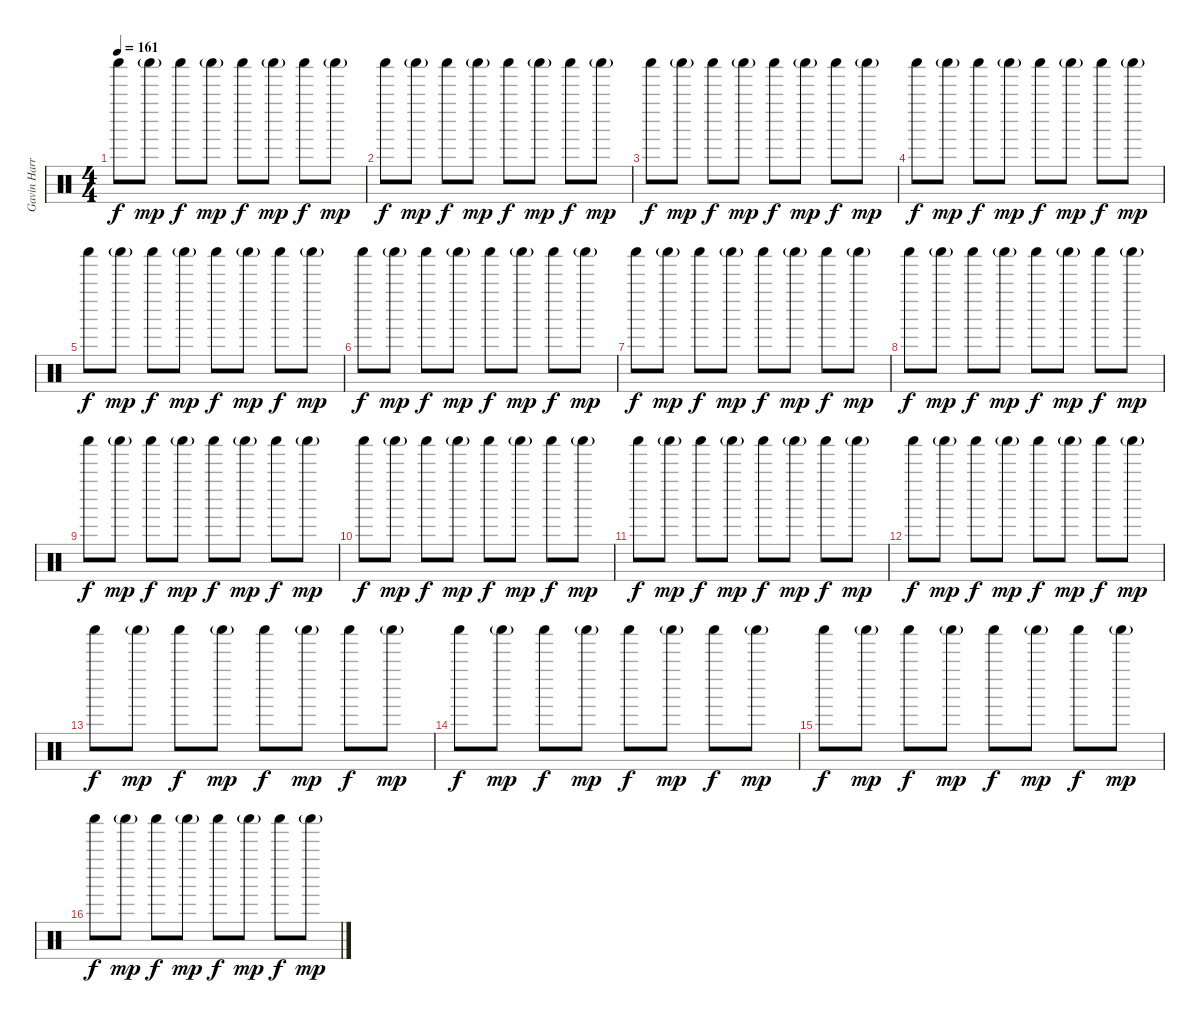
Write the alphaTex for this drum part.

\track ("Gavin Harrison (Drums)" "Gavin Harr") {instrument percussion}
\staff {score}
\articulation defaults
\ts (4 4)
\tempo 161
\clef neutral
\ks c "Shaker (hit)".8{dy f} "Shaker (hit)"{g}.8{dy mp} "Shaker (hit)".8{dy f} "Shaker (hit)"{g}.8{dy mp} "Shaker (hit)".8{dy f} "Shaker (hit)"{g}.8{dy mp} "Shaker (hit)".8{dy f} "Shaker (hit)"{g}.8{dy mp}
|
"Shaker (hit)".8{dy f} "Shaker (hit)"{g}.8{dy mp} "Shaker (hit)".8{dy f} "Shaker (hit)"{g}.8{dy mp} "Shaker (hit)".8{dy f} "Shaker (hit)"{g}.8{dy mp} "Shaker (hit)".8{dy f} "Shaker (hit)"{g}.8{dy mp} |
"Shaker (hit)".8{dy f} "Shaker (hit)"{g}.8{dy mp} "Shaker (hit)".8{dy f} "Shaker (hit)"{g}.8{dy mp} "Shaker (hit)".8{dy f} "Shaker (hit)"{g}.8{dy mp} "Shaker (hit)".8{dy f} "Shaker (hit)"{g}.8{dy mp} |
"Shaker (hit)".8{dy f} "Shaker (hit)"{g}.8{dy mp} "Shaker (hit)".8{dy f} "Shaker (hit)"{g}.8{dy mp} "Shaker (hit)".8{dy f} "Shaker (hit)"{g}.8{dy mp} "Shaker (hit)".8{dy f} "Shaker (hit)"{g}.8{dy mp} |
"Shaker (hit)".8{dy f} "Shaker (hit)"{g}.8{dy mp} "Shaker (hit)".8{dy f} "Shaker (hit)"{g}.8{dy mp} "Shaker (hit)".8{dy f} "Shaker (hit)"{g}.8{dy mp} "Shaker (hit)".8{dy f} "Shaker (hit)"{g}.8{dy mp} |
"Shaker (hit)".8{dy f} "Shaker (hit)"{g}.8{dy mp} "Shaker (hit)".8{dy f} "Shaker (hit)"{g}.8{dy mp} "Shaker (hit)".8{dy f} "Shaker (hit)"{g}.8{dy mp} "Shaker (hit)".8{dy f} "Shaker (hit)"{g}.8{dy mp} |
"Shaker (hit)".8{dy f} "Shaker (hit)"{g}.8{dy mp} "Shaker (hit)".8{dy f} "Shaker (hit)"{g}.8{dy mp} "Shaker (hit)".8{dy f} "Shaker (hit)"{g}.8{dy mp} "Shaker (hit)".8{dy f} "Shaker (hit)"{g}.8{dy mp} |
"Shaker (hit)".8{dy f} "Shaker (hit)"{g}.8{dy mp} "Shaker (hit)".8{dy f} "Shaker (hit)"{g}.8{dy mp} "Shaker (hit)".8{dy f} "Shaker (hit)"{g}.8{dy mp} "Shaker (hit)".8{dy f} "Shaker (hit)"{g}.8{dy mp} |
"Shaker (hit)".8{dy f} "Shaker (hit)"{g}.8{dy mp} "Shaker (hit)".8{dy f} "Shaker (hit)"{g}.8{dy mp} "Shaker (hit)".8{dy f} "Shaker (hit)"{g}.8{dy mp} "Shaker (hit)".8{dy f} "Shaker (hit)"{g}.8{dy mp} |
"Shaker (hit)".8{dy f} "Shaker (hit)"{g}.8{dy mp} "Shaker (hit)".8{dy f} "Shaker (hit)"{g}.8{dy mp} "Shaker (hit)".8{dy f} "Shaker (hit)"{g}.8{dy mp} "Shaker (hit)".8{dy f} "Shaker (hit)"{g}.8{dy mp} |
"Shaker (hit)".8{dy f} "Shaker (hit)"{g}.8{dy mp} "Shaker (hit)".8{dy f} "Shaker (hit)"{g}.8{dy mp} "Shaker (hit)".8{dy f} "Shaker (hit)"{g}.8{dy mp} "Shaker (hit)".8{dy f} "Shaker (hit)"{g}.8{dy mp} |
"Shaker (hit)".8{dy f} "Shaker (hit)"{g}.8{dy mp} "Shaker (hit)".8{dy f} "Shaker (hit)"{g}.8{dy mp} "Shaker (hit)".8{dy f} "Shaker (hit)"{g}.8{dy mp} "Shaker (hit)".8{dy f} "Shaker (hit)"{g}.8{dy mp} |
"Shaker (hit)".8{dy f} "Shaker (hit)"{g}.8{dy mp} "Shaker (hit)".8{dy f} "Shaker (hit)"{g}.8{dy mp} "Shaker (hit)".8{dy f} "Shaker (hit)"{g}.8{dy mp} "Shaker (hit)".8{dy f} "Shaker (hit)"{g}.8{dy mp} |
"Shaker (hit)".8{dy f} "Shaker (hit)"{g}.8{dy mp} "Shaker (hit)".8{dy f} "Shaker (hit)"{g}.8{dy mp} "Shaker (hit)".8{dy f} "Shaker (hit)"{g}.8{dy mp} "Shaker (hit)".8{dy f} "Shaker (hit)"{g}.8{dy mp} |
"Shaker (hit)".8{dy f} "Shaker (hit)"{g}.8{dy mp} "Shaker (hit)".8{dy f} "Shaker (hit)"{g}.8{dy mp} "Shaker (hit)".8{dy f} "Shaker (hit)"{g}.8{dy mp} "Shaker (hit)".8{dy f} "Shaker (hit)"{g}.8{dy mp} |
"Shaker (hit)".8{dy f} "Shaker (hit)"{g}.8{dy mp} "Shaker (hit)".8{dy f} "Shaker (hit)"{g}.8{dy mp} "Shaker (hit)".8{dy f} "Shaker (hit)"{g}.8{dy mp} "Shaker (hit)".8{dy f} "Shaker (hit)"{g}.8{dy mp}
